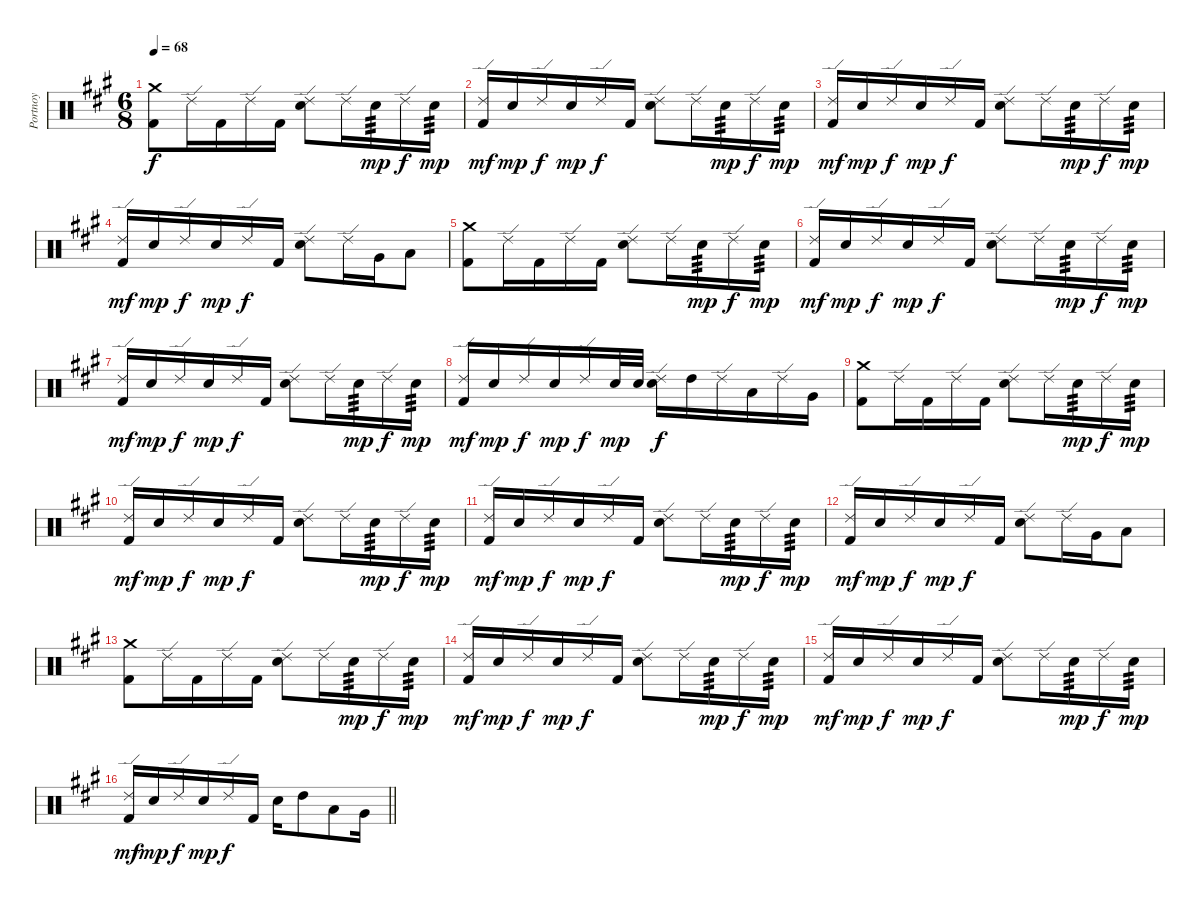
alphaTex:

\track ("Portnoy" "Portnoy") {instrument percussion}
\staff {score}
\articulation defaults
\ts (6 8)
\tempo 68
\clef neutral
\ks a
("Crash medium (hit)" "Kick (hit) 2").8{dy f} "Ride (edge) 2".16 "Kick (hit) 2".16 "Ride (edge) 2".16 "Kick (hit) 2".16 ("Ride (edge) 2" "Snare (hit) 2").8 "Ride (edge) 2".16 "Snare (hit) 2".16{tp 3 dy mp} "Ride (edge) 2".16{dy f} "Snare (hit) 2".16{tp 3 dy mp} |
("Ride (edge) 2" "Kick (hit) 2").16{dy mf} "Snare (hit) 2".16{dy mp} "Ride (edge) 2".16{dy f} "Snare (hit) 2".16{dy mp} "Ride (edge) 2".16{dy f} "Kick (hit) 2".16 ("Ride (edge) 2" "Snare (hit) 2").8 "Ride (edge) 2".16 "Snare (hit) 2".16{tp 3 dy mp} "Ride (edge) 2".16{dy f} "Snare (hit) 2".16{tp 3 dy mp} |
("Ride (edge) 2" "Kick (hit) 2").16{dy mf} "Snare (hit) 2".16{dy mp} "Ride (edge) 2".16{dy f} "Snare (hit) 2".16{dy mp} "Ride (edge) 2".16{dy f} "Kick (hit) 2".16 ("Ride (edge) 2" "Snare (hit) 2").8 "Ride (edge) 2".16 "Snare (hit) 2".16{tp 3 dy mp} "Ride (edge) 2".16{dy f} "Snare (hit) 2".16{tp 3 dy mp} |
("Ride (edge) 2" "Kick (hit) 2").16{dy mf} "Snare (hit) 2".16{dy mp} "Ride (edge) 2".16{dy f} "Snare (hit) 2".16{dy mp} "Ride (edge) 2".16{dy f} "Kick (hit) 2".16 ("Ride (edge) 2" "Snare (hit) 2").8 "Ride (edge) 2".16 "Very Low Tom (hit)".16 "Low Floor Tom (hit)".8 |
("Crash medium (hit)" "Kick (hit) 2").8 "Ride (edge) 2".16 "Kick (hit) 2".16 "Ride (edge) 2".16 "Kick (hit) 2".16 ("Ride (edge) 2" "Snare (hit) 2").8 "Ride (edge) 2".16 "Snare (hit) 2".16{tp 3 dy mp} "Ride (edge) 2".16{dy f} "Snare (hit) 2".16{tp 3 dy mp} |
("Ride (edge) 2" "Kick (hit) 2").16{dy mf} "Snare (hit) 2".16{dy mp} "Ride (edge) 2".16{dy f} "Snare (hit) 2".16{dy mp} "Ride (edge) 2".16{dy f} "Kick (hit) 2".16 ("Ride (edge) 2" "Snare (hit) 2").8 "Ride (edge) 2".16 "Snare (hit) 2".16{tp 3 dy mp} "Ride (edge) 2".16{dy f} "Snare (hit) 2".16{tp 3 dy mp} |
("Ride (edge) 2" "Kick (hit) 2").16{dy mf} "Snare (hit) 2".16{dy mp} "Ride (edge) 2".16{dy f} "Snare (hit) 2".16{dy mp} "Ride (edge) 2".16{dy f} "Kick (hit) 2".16 ("Ride (edge) 2" "Snare (hit) 2").8 "Ride (edge) 2".16 "Snare (hit) 2".16{tp 3 dy mp} "Ride (edge) 2".16{dy f} "Snare (hit) 2".16{tp 3 dy mp} |
("Ride (edge) 2" "Kick (hit) 2").16{dy mf} "Snare (hit) 2".16{dy mp} "Ride (edge) 2".16{dy f} "Snare (hit) 2".16{dy mp} "Ride (edge) 2".16{dy f} "Snare (hit) 2".32{dy mp} "Snare (hit) 2".32 ("Snare (hit) 2" "Ride (edge) 2").16{dy f} "High Tom (hit)".16 "Ride (edge) 2".16 "Low Tom (hit)".16 "Ride (edge) 2".16 "Very Low Tom (hit)".16 |
("Crash medium (hit)" "Kick (hit) 2").8 "Ride (edge) 2".16 "Kick (hit) 2".16 "Ride (edge) 2".16 "Kick (hit) 2".16 ("Ride (edge) 2" "Snare (hit) 2").8 "Ride (edge) 2".16 "Snare (hit) 2".16{tp 3 dy mp} "Ride (edge) 2".16{dy f} "Snare (hit) 2".16{tp 3 dy mp} |
("Ride (edge) 2" "Kick (hit) 2").16{dy mf} "Snare (hit) 2".16{dy mp} "Ride (edge) 2".16{dy f} "Snare (hit) 2".16{dy mp} "Ride (edge) 2".16{dy f} "Kick (hit) 2".16 ("Ride (edge) 2" "Snare (hit) 2").8 "Ride (edge) 2".16 "Snare (hit) 2".16{tp 3 dy mp} "Ride (edge) 2".16{dy f} "Snare (hit) 2".16{tp 3 dy mp} |
("Ride (edge) 2" "Kick (hit) 2").16{dy mf} "Snare (hit) 2".16{dy mp} "Ride (edge) 2".16{dy f} "Snare (hit) 2".16{dy mp} "Ride (edge) 2".16{dy f} "Kick (hit) 2".16 ("Ride (edge) 2" "Snare (hit) 2").8 "Ride (edge) 2".16 "Snare (hit) 2".16{tp 3 dy mp} "Ride (edge) 2".16{dy f} "Snare (hit) 2".16{tp 3 dy mp} |
("Ride (edge) 2" "Kick (hit) 2").16{dy mf} "Snare (hit) 2".16{dy mp} "Ride (edge) 2".16{dy f} "Snare (hit) 2".16{dy mp} "Ride (edge) 2".16{dy f} "Kick (hit) 2".16 ("Ride (edge) 2" "Snare (hit) 2").8 "Ride (edge) 2".16 "Very Low Tom (hit)".16 "Low Floor Tom (hit)".8 |
("Crash medium (hit)" "Kick (hit) 2").8 "Ride (edge) 2".16 "Kick (hit) 2".16 "Ride (edge) 2".16 "Kick (hit) 2".16 ("Ride (edge) 2" "Snare (hit) 2").8 "Ride (edge) 2".16 "Snare (hit) 2".16{tp 3 dy mp} "Ride (edge) 2".16{dy f} "Snare (hit) 2".16{tp 3 dy mp} |
("Ride (edge) 2" "Kick (hit) 2").16{dy mf} "Snare (hit) 2".16{dy mp} "Ride (edge) 2".16{dy f} "Snare (hit) 2".16{dy mp} "Ride (edge) 2".16{dy f} "Kick (hit) 2".16 ("Ride (edge) 2" "Snare (hit) 2").8 "Ride (edge) 2".16 "Snare (hit) 2".16{tp 3 dy mp} "Ride (edge) 2".16{dy f} "Snare (hit) 2".16{tp 3 dy mp} |
("Ride (edge) 2" "Kick (hit) 2").16{dy mf} "Snare (hit) 2".16{dy mp} "Ride (edge) 2".16{dy f} "Snare (hit) 2".16{dy mp} "Ride (edge) 2".16{dy f} "Kick (hit) 2".16 ("Ride (edge) 2" "Snare (hit) 2").8 "Ride (edge) 2".16 "Snare (hit) 2".16{tp 3 dy mp} "Ride (edge) 2".16{dy f} "Snare (hit) 2".16{tp 3 dy mp} |
\barLineRight lightlight
("Ride (edge) 2" "Kick (hit) 2").16{dy mf} "Snare (hit) 2".16{dy mp} "Ride (edge) 2".16{dy f} "Snare (hit) 2".16{dy mp} "Ride (edge) 2".16{dy f} "Kick (hit) 2".16 "Snare (hit) 2".16 "High Tom (hit)".8 "Low Tom (hit)".8 "Very Low Tom (hit)".16
